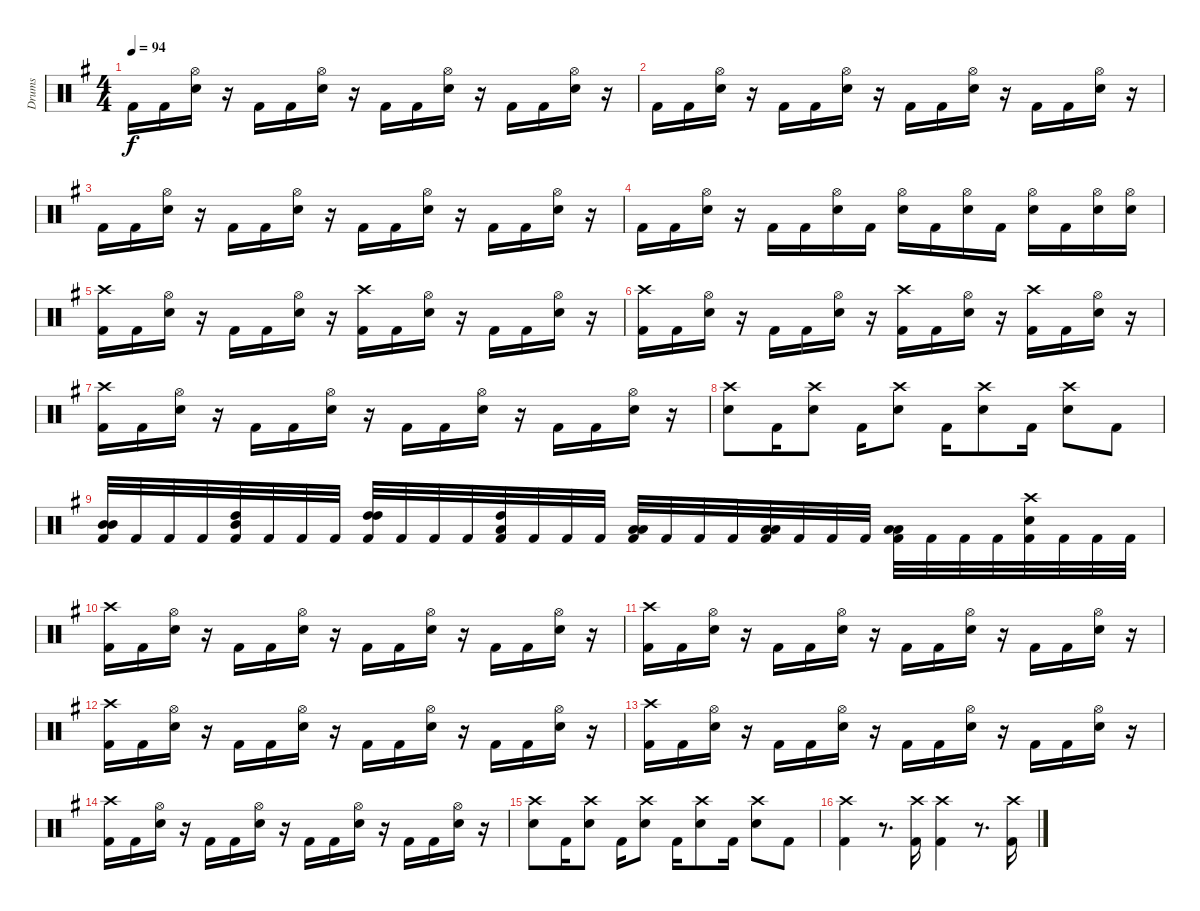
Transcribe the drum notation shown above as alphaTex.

\track ("Drums" "Drums") {instrument percussion}
\staff {score}
\articulation defaults
\ts (4 4)
\tempo 94
\clef neutral
\ks g "Kick (hit) 2".16{dy f} "Kick (hit) 2".16
("Hi-Hat (open)" "Snare (hit) 2").16 r.16 "Kick (hit) 2".16 "Kick (hit) 2".16 ("Hi-Hat (open)" "Snare (hit) 2").16 r.16 "Kick (hit) 2".16 "Kick (hit) 2".16 ("Hi-Hat (open)" "Snare (hit) 2").16 r.16 "Kick (hit) 2".16 "Kick (hit) 2".16 ("Hi-Hat (open)" "Snare (hit) 2").16 r.16 |
"Kick (hit) 2".16 "Kick (hit) 2".16 ("Hi-Hat (open)" "Snare (hit) 2").16 r.16 "Kick (hit) 2".16 "Kick (hit) 2".16 ("Hi-Hat (open)" "Snare (hit) 2").16 r.16 "Kick (hit) 2".16 "Kick (hit) 2".16 ("Hi-Hat (open)" "Snare (hit) 2").16 r.16 "Kick (hit) 2".16 "Kick (hit) 2".16 ("Hi-Hat (open)" "Snare (hit) 2").16 r.16 |
"Kick (hit) 2".16 "Kick (hit) 2".16 ("Hi-Hat (open)" "Snare (hit) 2").16 r.16 "Kick (hit) 2".16 "Kick (hit) 2".16 ("Hi-Hat (open)" "Snare (hit) 2").16 r.16 "Kick (hit) 2".16 "Kick (hit) 2".16 ("Hi-Hat (open)" "Snare (hit) 2").16 r.16 "Kick (hit) 2".16 "Kick (hit) 2".16 ("Hi-Hat (open)" "Snare (hit) 2").16 r.16 |
"Kick (hit) 2".16 "Kick (hit) 2".16 ("Hi-Hat (open)" "Snare (hit) 2").16 r.16 "Kick (hit) 2".16 "Kick (hit) 2".16 ("Hi-Hat (open)" "Snare (hit) 2").16 "Kick (hit) 2".16 ("Hi-Hat (open)" "Snare (hit) 2").16 "Kick (hit) 2".16 ("Hi-Hat (open)" "Snare (hit) 2").16 "Kick (hit) 2".16 ("Hi-Hat (open)" "Snare (hit) 2").16 "Kick (hit) 2".16 ("Hi-Hat (open)" "Snare (hit) 2").16 ("Hi-Hat (open)" "Snare (hit) 2").16 |
("Crash high (hit)" "Kick (hit) 2").16 "Kick (hit) 2".16 ("Hi-Hat (open)" "Snare (hit) 2").16 r.16 "Kick (hit) 2".16 "Kick (hit) 2".16 ("Hi-Hat (open)" "Snare (hit) 2").16 r.16 ("Crash high (hit)" "Kick (hit) 2").16 "Kick (hit) 2".16 ("Hi-Hat (open)" "Snare (hit) 2").16 r.16 "Kick (hit) 2".16 "Kick (hit) 2".16 ("Hi-Hat (open)" "Snare (hit) 2").16 r.16 |
("Crash high (hit)" "Kick (hit) 2").16 "Kick (hit) 2".16 ("Hi-Hat (open)" "Snare (hit) 2").16 r.16 "Kick (hit) 2".16 "Kick (hit) 2".16 ("Hi-Hat (open)" "Snare (hit) 2").16 r.16 ("Crash high (hit)" "Kick (hit) 2").16 "Kick (hit) 2".16 ("Hi-Hat (open)" "Snare (hit) 2").16 r.16 ("Crash high (hit)" "Kick (hit) 2").16 "Kick (hit) 2".16 ("Hi-Hat (open)" "Snare (hit) 2").16 r.16 |
("Crash high (hit)" "Kick (hit) 2").16 "Kick (hit) 2".16 ("Hi-Hat (open)" "Snare (hit) 2").16 r.16 "Kick (hit) 2".16 "Kick (hit) 2".16 ("Hi-Hat (open)" "Snare (hit) 2").16 r.16 "Kick (hit) 2".16 "Kick (hit) 2".16 ("Hi-Hat (open)" "Snare (hit) 2").16 r.16 "Kick (hit) 2".16 "Kick (hit) 2".16 ("Hi-Hat (open)" "Snare (hit) 2").16 r.16 |
("Crash high (hit)" "Snare (hit) 2").8 "Kick (hit) 2".16 ("Crash high (hit)" "Snare (hit) 2").8 "Kick (hit) 2".16 ("Crash high (hit)" "Snare (hit) 2").8 "Kick (hit) 2".16 ("Crash high (hit)" "Snare (hit) 2").8 "Kick (hit) 2".16 ("Crash high (hit)" "Snare (hit) 2").8 "Kick (hit) 2".8 |
("Mid Tom (hit)" "Mid Tom (hit)" "Kick (hit) 2").32 "Kick (hit) 2".32 "Kick (hit) 2".32 "Kick (hit) 2".32 ("High Tom (hit)" "Mid Tom (hit)" "Kick (hit) 2").32 "Kick (hit) 2".32 "Kick (hit) 2".32 "Kick (hit) 2".32 ("High Tom (hit)" "High Tom (hit)" "Kick (hit) 2").32 "Kick (hit) 2".32 "Kick (hit) 2".32 "Kick (hit) 2".32 ("Low Tom (hit)" "High Tom (hit)" "Kick (hit) 2").32 "Kick (hit) 2".32 "Kick (hit) 2".32 "Kick (hit) 2".32 ("Low Tom (hit)" "Low Tom (hit)" "Kick (hit) 2").32 "Kick (hit) 2".32 "Kick (hit) 2".32 "Kick (hit) 2".32 ("Low Tom (hit)" "Low Tom (hit)" "Kick (hit) 2").32 "Kick (hit) 2".32 "Kick (hit) 2".32 "Kick (hit) 2".32 ("Low Tom (hit)" "Low Tom (hit)" "Kick (hit) 2").32 "Kick (hit) 2".32 "Kick (hit) 2".32 "Kick (hit) 2".32 ("Crash high (hit)" "Snare (hit) 2" "Kick (hit) 2").32 "Kick (hit) 2".32 "Kick (hit) 2".32 "Kick (hit) 2".32 |
("Crash high (hit)" "Kick (hit) 2").16 "Kick (hit) 2".16 ("Hi-Hat (open)" "Snare (hit) 2").16 r.16 "Kick (hit) 2".16 "Kick (hit) 2".16 ("Hi-Hat (open)" "Snare (hit) 2").16 r.16 "Kick (hit) 2".16 "Kick (hit) 2".16 ("Hi-Hat (open)" "Snare (hit) 2").16 r.16 "Kick (hit) 2".16 "Kick (hit) 2".16 ("Hi-Hat (open)" "Snare (hit) 2").16 r.16 |
("Crash high (hit)" "Kick (hit) 2").16 "Kick (hit) 2".16 ("Hi-Hat (open)" "Snare (hit) 2").16 r.16 "Kick (hit) 2".16 "Kick (hit) 2".16 ("Hi-Hat (open)" "Snare (hit) 2").16 r.16 "Kick (hit) 2".16 "Kick (hit) 2".16 ("Hi-Hat (open)" "Snare (hit) 2").16 r.16 "Kick (hit) 2".16 "Kick (hit) 2".16 ("Hi-Hat (open)" "Snare (hit) 2").16 r.16 |
("Crash high (hit)" "Kick (hit) 2").16 "Kick (hit) 2".16 ("Hi-Hat (open)" "Snare (hit) 2").16 r.16 "Kick (hit) 2".16 "Kick (hit) 2".16 ("Hi-Hat (open)" "Snare (hit) 2").16 r.16 "Kick (hit) 2".16 "Kick (hit) 2".16 ("Hi-Hat (open)" "Snare (hit) 2").16 r.16 "Kick (hit) 2".16 "Kick (hit) 2".16 ("Hi-Hat (open)" "Snare (hit) 2").16 r.16 |
("Crash high (hit)" "Kick (hit) 2").16 "Kick (hit) 2".16 ("Hi-Hat (open)" "Snare (hit) 2").16 r.16 "Kick (hit) 2".16 "Kick (hit) 2".16 ("Hi-Hat (open)" "Snare (hit) 2").16 r.16 "Kick (hit) 2".16 "Kick (hit) 2".16 ("Hi-Hat (open)" "Snare (hit) 2").16 r.16 "Kick (hit) 2".16 "Kick (hit) 2".16 ("Hi-Hat (open)" "Snare (hit) 2").16 r.16 |
("Crash high (hit)" "Kick (hit) 2").16 "Kick (hit) 2".16 ("Hi-Hat (open)" "Snare (hit) 2").16 r.16 "Kick (hit) 2".16 "Kick (hit) 2".16 ("Hi-Hat (open)" "Snare (hit) 2").16 r.16 "Kick (hit) 2".16 "Kick (hit) 2".16 ("Hi-Hat (open)" "Snare (hit) 2").16 r.16 "Kick (hit) 2".16 "Kick (hit) 2".16 ("Hi-Hat (open)" "Snare (hit) 2").16 r.16 |
("Crash high (hit)" "Snare (hit) 2").8 "Kick (hit) 2".16 ("Crash high (hit)" "Snare (hit) 2").8 "Kick (hit) 2".16 ("Crash high (hit)" "Snare (hit) 2").8 "Kick (hit) 2".16 ("Crash high (hit)" "Snare (hit) 2").8 "Kick (hit) 2".16 ("Crash high (hit)" "Snare (hit) 2").8 "Kick (hit) 2".8 |
("Crash high (hit)" "Kick (hit) 2").4 r.8{d} ("Crash high (hit)" "Kick (hit) 2").16 ("Crash high (hit)" "Kick (hit) 2").4 r.8{d} ("Crash high (hit)" "Kick (hit) 2").16
